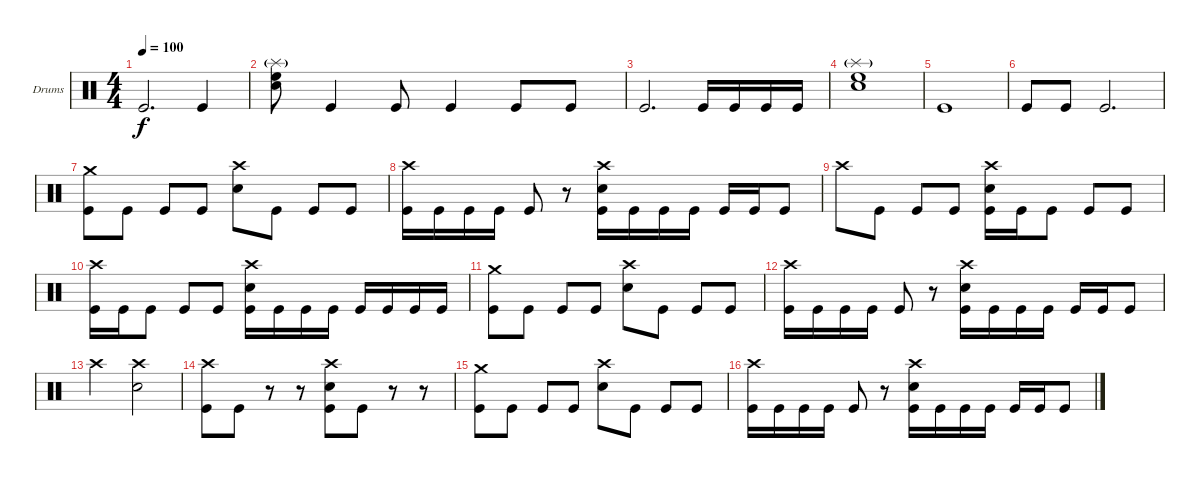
\bracketExtendMode groupsimilarinstruments
\firstSystemTrackNameOrientation horizontal
\otherSystemsTrackNameOrientation horizontal
\track ("Drumkit" "Drums") {instrument percussion}
\staff {score}
\articulation defaults
\ts (4 4)
\tempo 100
\clef neutral
\ks c "Kick (hit)".2{d dy f} "Kick (hit)".4
|
("Snare (hit) 2" "High Floor Tom (hit)" "Splash (hit)"{g}).8 "Kick (hit)".4 "Kick (hit)".8 "Kick (hit)".4 "Kick (hit)".8 "Kick (hit)".8 |
"Kick (hit)".2{d} "Kick (hit)".16 "Kick (hit)".16 "Kick (hit)".16 "Kick (hit)".16 |
("Snare (hit) 2" "High Floor Tom (hit)" "Splash (hit)"{g}).1 |
"Kick (hit)".1 |
"Kick (hit)".8 "Kick (hit)".8 "Kick (hit)".2{d} |
("Crash medium (hit)" "Kick (hit)").8 "Kick (hit)".8 "Kick (hit)".8 "Kick (hit)".8 ("Crash high (hit)" "Snare (hit) 2").8 "Kick (hit)".8 "Kick (hit)".8 "Kick (hit)".8 |
("Crash high (hit)" "Kick (hit)").16 "Kick (hit)".16 "Kick (hit)".16 "Kick (hit)".16 "Kick (hit)".8 r.8 ("Crash high (hit)" "Snare (hit) 2" "Kick (hit)").16 "Kick (hit)".16 "Kick (hit)".16 "Kick (hit)".16 "Kick (hit)".16 "Kick (hit)".16 "Kick (hit)".8 |
"Crash high (hit)".8 "Kick (hit)".8 "Kick (hit)".8 "Kick (hit)".8 ("Crash high (hit)" "Snare (hit) 2" "Kick (hit)").16 "Kick (hit)".16 "Kick (hit)".8 "Kick (hit)".8 "Kick (hit)".8 |
("Crash high (hit)" "Kick (hit)").16 "Kick (hit)".16 "Kick (hit)".8 "Kick (hit)".8 "Kick (hit)".8 ("Crash high (hit)" "Snare (hit) 2" "Kick (hit)").16 "Kick (hit)".16 "Kick (hit)".16 "Kick (hit)".16 "Kick (hit)".16 "Kick (hit)".16 "Kick (hit)".16 "Kick (hit)".16 |
("Crash medium (hit)" "Kick (hit)").8 "Kick (hit)".8 "Kick (hit)".8 "Kick (hit)".8 ("Crash high (hit)" "Snare (hit) 2").8 "Kick (hit)".8 "Kick (hit)".8 "Kick (hit)".8 |
("Crash high (hit)" "Kick (hit)").16 "Kick (hit)".16 "Kick (hit)".16 "Kick (hit)".16 "Kick (hit)".8 r.8 ("Crash high (hit)" "Snare (hit) 2" "Kick (hit)").16 "Kick (hit)".16 "Kick (hit)".16 "Kick (hit)".16 "Kick (hit)".16 "Kick (hit)".16 "Kick (hit)".8 |
"Crash high (hit)".2 ("Crash high (hit)" "Snare (hit) 2").2 |
("Crash high (hit)" "Kick (hit)").8 "Kick (hit)".8 r.8 r.8 ("Crash high (hit)" "Snare (hit) 2" "Kick (hit)").8 "Kick (hit)".8 r.8 r.8 |
("Crash medium (hit)" "Kick (hit)").8 "Kick (hit)".8 "Kick (hit)".8 "Kick (hit)".8 ("Crash high (hit)" "Snare (hit) 2").8 "Kick (hit)".8 "Kick (hit)".8 "Kick (hit)".8 |
("Crash high (hit)" "Kick (hit)").16 "Kick (hit)".16 "Kick (hit)".16 "Kick (hit)".16 "Kick (hit)".8 r.8 ("Crash high (hit)" "Snare (hit) 2" "Kick (hit)").16 "Kick (hit)".16 "Kick (hit)".16 "Kick (hit)".16 "Kick (hit)".16 "Kick (hit)".16 "Kick (hit)".8
